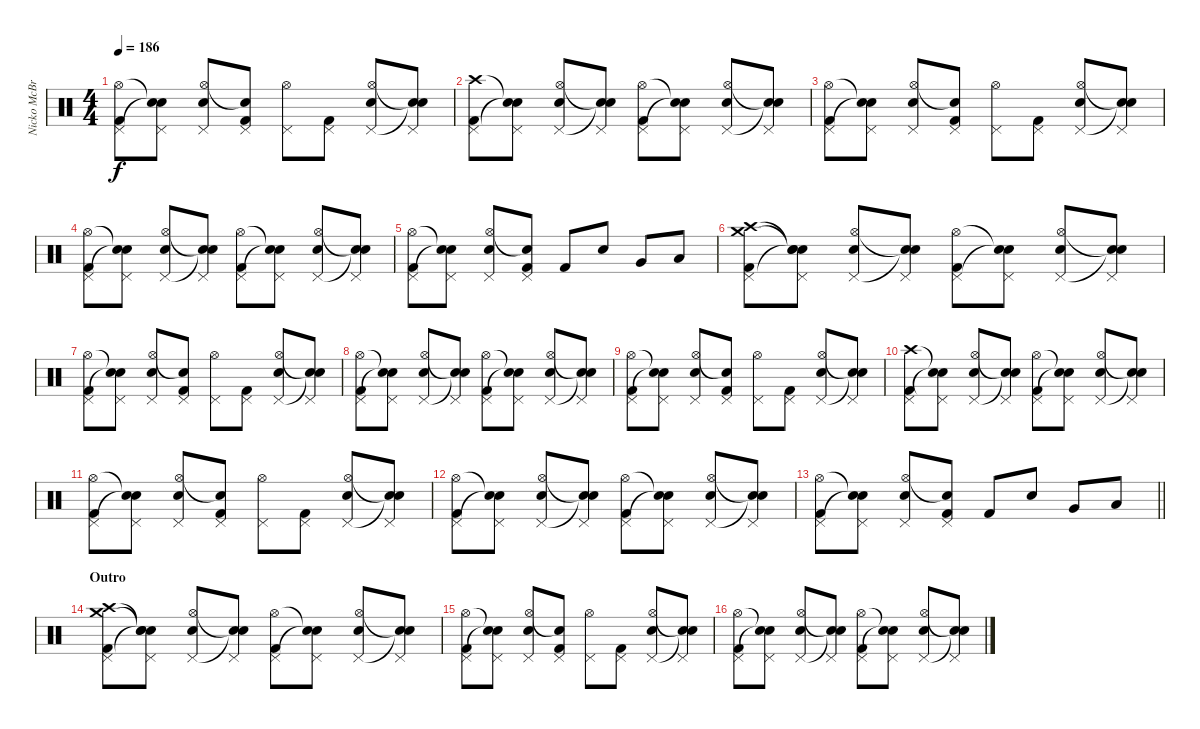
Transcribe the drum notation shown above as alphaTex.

\track ("Nicko McBrain" "Nicko McBr") {instrument percussion}
\staff {score}
\articulation defaults
\ts (4 4)
\tempo 186
\clef neutral
\ks c
("Kick (hit) 2" "Pedal Hi-Hat (hit)" "Hi-Hat (open)").8{dy f} ("Pedal Hi-Hat (hit)" "Snare (hit)"{t} "Snare (hit)"{t}).8 ("Snare (hit) 2" "Pedal Hi-Hat (hit)" "Hi-Hat (open)").8 ("Kick (hit) 2" "Pedal Hi-Hat (hit)" "Snare (hit)"{t}).8 ("Pedal Hi-Hat (hit)" "Hi-Hat (open)").8 ("Kick (hit) 2" "Pedal Hi-Hat (hit)").8 ("Snare (hit) 2" "Pedal Hi-Hat (hit)" "Hi-Hat (open)").8 ("Pedal Hi-Hat (hit)" "Snare (hit)"{t} "Snare (hit)"{t}).8 |
("Kick (hit) 2" "Pedal Hi-Hat (hit)" "Crash high (hit)").8 ("Pedal Hi-Hat (hit)" "Snare (hit)"{t} "Snare (hit)"{t}).8 ("Snare (hit) 2" "Pedal Hi-Hat (hit)" "Hi-Hat (open)").8 ("Pedal Hi-Hat (hit)" "Snare (hit)"{t} "Snare (hit)"{t}).8 ("Kick (hit) 2" "Pedal Hi-Hat (hit)" "Hi-Hat (open)").8 ("Pedal Hi-Hat (hit)" "Snare (hit)"{t} "Snare (hit)"{t}).8 ("Snare (hit) 2" "Pedal Hi-Hat (hit)" "Hi-Hat (open)").8 ("Pedal Hi-Hat (hit)" "Snare (hit)"{t} "Snare (hit)"{t}).8 |
("Kick (hit) 2" "Pedal Hi-Hat (hit)" "Hi-Hat (open)").8 ("Pedal Hi-Hat (hit)" "Snare (hit)"{t} "Snare (hit)"{t}).8 ("Snare (hit) 2" "Pedal Hi-Hat (hit)" "Hi-Hat (open)").8 ("Kick (hit) 2" "Pedal Hi-Hat (hit)" "Snare (hit)"{t}).8 ("Pedal Hi-Hat (hit)" "Hi-Hat (open)").8 ("Kick (hit) 2" "Pedal Hi-Hat (hit)").8 ("Snare (hit) 2" "Pedal Hi-Hat (hit)" "Hi-Hat (open)").8 ("Pedal Hi-Hat (hit)" "Snare (hit)"{t} "Snare (hit)"{t}).8 |
("Kick (hit) 2" "Pedal Hi-Hat (hit)" "Hi-Hat (open)").8 ("Pedal Hi-Hat (hit)" "Snare (hit)"{t} "Snare (hit)"{t}).8 ("Snare (hit) 2" "Pedal Hi-Hat (hit)" "Hi-Hat (open)").8 ("Pedal Hi-Hat (hit)" "Snare (hit)"{t} "Snare (hit)"{t}).8 ("Kick (hit) 2" "Pedal Hi-Hat (hit)" "Hi-Hat (open)").8 ("Pedal Hi-Hat (hit)" "Snare (hit)"{t} "Snare (hit)"{t}).8 ("Snare (hit) 2" "Pedal Hi-Hat (hit)" "Hi-Hat (open)").8 ("Pedal Hi-Hat (hit)" "Snare (hit)"{t} "Snare (hit)"{t}).8 |
("Kick (hit) 2" "Pedal Hi-Hat (hit)" "Hi-Hat (open)").8 ("Pedal Hi-Hat (hit)" "Snare (hit)"{t} "Snare (hit)"{t}).8 ("Snare (hit) 2" "Pedal Hi-Hat (hit)" "Hi-Hat (open)").8 ("Kick (hit) 2" "Pedal Hi-Hat (hit)" "Snare (hit)"{t}).8 "Kick (hit) 2".8 "Snare (hit) 2".8 "Very Low Tom (hit)".8 "Low Floor Tom (hit)".8 |
("Kick (hit) 2" "Pedal Hi-Hat (hit)" "Crash high (hit)" "Crash medium (hit)").8 ("Pedal Hi-Hat (hit)" "Snare (hit)"{t} "Snare (hit)"{t} "Snare (hit)"{t}).8 ("Snare (hit) 2" "Pedal Hi-Hat (hit)" "Hi-Hat (open)").8 ("Pedal Hi-Hat (hit)" "Snare (hit)"{t} "Snare (hit)"{t}).8 ("Kick (hit) 2" "Pedal Hi-Hat (hit)" "Hi-Hat (open)").8 ("Pedal Hi-Hat (hit)" "Snare (hit)"{t} "Snare (hit)"{t}).8 ("Snare (hit) 2" "Pedal Hi-Hat (hit)" "Hi-Hat (open)").8 ("Pedal Hi-Hat (hit)" "Snare (hit)"{t} "Snare (hit)"{t}).8 |
("Kick (hit) 2" "Pedal Hi-Hat (hit)" "Hi-Hat (open)").8 ("Pedal Hi-Hat (hit)" "Snare (hit)"{t} "Snare (hit)"{t}).8 ("Snare (hit) 2" "Pedal Hi-Hat (hit)" "Hi-Hat (open)").8 ("Kick (hit) 2" "Pedal Hi-Hat (hit)" "Snare (hit)"{t}).8 ("Pedal Hi-Hat (hit)" "Hi-Hat (open)").8 ("Kick (hit) 2" "Pedal Hi-Hat (hit)").8 ("Snare (hit) 2" "Pedal Hi-Hat (hit)" "Hi-Hat (open)").8 ("Pedal Hi-Hat (hit)" "Snare (hit)"{t} "Snare (hit)"{t}).8 |
("Kick (hit) 2" "Pedal Hi-Hat (hit)" "Hi-Hat (open)").8 ("Pedal Hi-Hat (hit)" "Snare (hit)"{t} "Snare (hit)"{t}).8 ("Snare (hit) 2" "Pedal Hi-Hat (hit)" "Hi-Hat (open)").8 ("Pedal Hi-Hat (hit)" "Snare (hit)"{t} "Snare (hit)"{t}).8 ("Kick (hit) 2" "Pedal Hi-Hat (hit)" "Hi-Hat (open)").8 ("Pedal Hi-Hat (hit)" "Snare (hit)"{t} "Snare (hit)"{t}).8 ("Snare (hit) 2" "Pedal Hi-Hat (hit)" "Hi-Hat (open)").8 ("Pedal Hi-Hat (hit)" "Snare (hit)"{t} "Snare (hit)"{t}).8 |
("Kick (hit) 2" "Pedal Hi-Hat (hit)" "Hi-Hat (open)").8 ("Pedal Hi-Hat (hit)" "Snare (hit)"{t} "Snare (hit)"{t}).8 ("Snare (hit) 2" "Pedal Hi-Hat (hit)" "Hi-Hat (open)").8 ("Kick (hit) 2" "Pedal Hi-Hat (hit)" "Snare (hit)"{t}).8 ("Pedal Hi-Hat (hit)" "Hi-Hat (open)").8 ("Kick (hit) 2" "Pedal Hi-Hat (hit)").8 ("Snare (hit) 2" "Pedal Hi-Hat (hit)" "Hi-Hat (open)").8 ("Pedal Hi-Hat (hit)" "Snare (hit)"{t} "Snare (hit)"{t}).8 |
("Kick (hit) 2" "Pedal Hi-Hat (hit)" "Crash high (hit)").8 ("Pedal Hi-Hat (hit)" "Snare (hit)"{t} "Snare (hit)"{t}).8 ("Snare (hit) 2" "Pedal Hi-Hat (hit)" "Hi-Hat (open)").8 ("Pedal Hi-Hat (hit)" "Snare (hit)"{t} "Snare (hit)"{t}).8 ("Kick (hit) 2" "Pedal Hi-Hat (hit)" "Hi-Hat (open)").8 ("Pedal Hi-Hat (hit)" "Snare (hit)"{t} "Snare (hit)"{t}).8 ("Snare (hit) 2" "Pedal Hi-Hat (hit)" "Hi-Hat (open)").8 ("Pedal Hi-Hat (hit)" "Snare (hit)"{t} "Snare (hit)"{t}).8 |
("Kick (hit) 2" "Pedal Hi-Hat (hit)" "Hi-Hat (open)").8 ("Pedal Hi-Hat (hit)" "Snare (hit)"{t} "Snare (hit)"{t}).8 ("Snare (hit) 2" "Pedal Hi-Hat (hit)" "Hi-Hat (open)").8 ("Kick (hit) 2" "Pedal Hi-Hat (hit)" "Snare (hit)"{t}).8 ("Pedal Hi-Hat (hit)" "Hi-Hat (open)").8 ("Kick (hit) 2" "Pedal Hi-Hat (hit)").8 ("Snare (hit) 2" "Pedal Hi-Hat (hit)" "Hi-Hat (open)").8 ("Pedal Hi-Hat (hit)" "Snare (hit)"{t} "Snare (hit)"{t}).8 |
("Kick (hit) 2" "Pedal Hi-Hat (hit)" "Hi-Hat (open)").8 ("Pedal Hi-Hat (hit)" "Snare (hit)"{t} "Snare (hit)"{t}).8 ("Snare (hit) 2" "Pedal Hi-Hat (hit)" "Hi-Hat (open)").8 ("Pedal Hi-Hat (hit)" "Snare (hit)"{t} "Snare (hit)"{t}).8 ("Kick (hit) 2" "Pedal Hi-Hat (hit)" "Hi-Hat (open)").8 ("Pedal Hi-Hat (hit)" "Snare (hit)"{t} "Snare (hit)"{t}).8 ("Snare (hit) 2" "Pedal Hi-Hat (hit)" "Hi-Hat (open)").8 ("Pedal Hi-Hat (hit)" "Snare (hit)"{t} "Snare (hit)"{t}).8 |
\barLineRight lightlight
("Kick (hit) 2" "Pedal Hi-Hat (hit)" "Hi-Hat (open)").8 ("Pedal Hi-Hat (hit)" "Snare (hit)"{t} "Snare (hit)"{t}).8 ("Snare (hit) 2" "Pedal Hi-Hat (hit)" "Hi-Hat (open)").8 ("Kick (hit) 2" "Pedal Hi-Hat (hit)" "Snare (hit)"{t}).8 "Kick (hit) 2".8 "Snare (hit) 2".8 "Very Low Tom (hit)".8 "Low Floor Tom (hit)".8 |
\section ("" "Outro")
("Kick (hit) 2" "Pedal Hi-Hat (hit)" "Crash high (hit)" "Crash medium (hit)").8 ("Pedal Hi-Hat (hit)" "Snare (hit)"{t} "Snare (hit)"{t} "Snare (hit)"{t}).8 ("Snare (hit) 2" "Pedal Hi-Hat (hit)" "Hi-Hat (open)").8 ("Pedal Hi-Hat (hit)" "Snare (hit)"{t} "Snare (hit)"{t}).8 ("Kick (hit) 2" "Pedal Hi-Hat (hit)" "Hi-Hat (open)").8 ("Pedal Hi-Hat (hit)" "Snare (hit)"{t} "Snare (hit)"{t}).8 ("Snare (hit) 2" "Pedal Hi-Hat (hit)" "Hi-Hat (open)").8 ("Pedal Hi-Hat (hit)" "Snare (hit)"{t} "Snare (hit)"{t}).8 |
("Kick (hit) 2" "Pedal Hi-Hat (hit)" "Hi-Hat (open)").8 ("Pedal Hi-Hat (hit)" "Snare (hit)"{t} "Snare (hit)"{t}).8 ("Snare (hit) 2" "Pedal Hi-Hat (hit)" "Hi-Hat (open)").8 ("Kick (hit) 2" "Pedal Hi-Hat (hit)" "Snare (hit)"{t}).8 ("Pedal Hi-Hat (hit)" "Hi-Hat (open)").8 ("Kick (hit) 2" "Pedal Hi-Hat (hit)").8 ("Snare (hit) 2" "Pedal Hi-Hat (hit)" "Hi-Hat (open)").8 ("Pedal Hi-Hat (hit)" "Snare (hit)"{t} "Snare (hit)"{t}).8 |
("Kick (hit) 2" "Pedal Hi-Hat (hit)" "Hi-Hat (open)").8 ("Pedal Hi-Hat (hit)" "Snare (hit)"{t} "Snare (hit)"{t}).8 ("Snare (hit) 2" "Pedal Hi-Hat (hit)" "Hi-Hat (open)").8 ("Pedal Hi-Hat (hit)" "Snare (hit)"{t} "Snare (hit)"{t}).8 ("Kick (hit) 2" "Pedal Hi-Hat (hit)" "Hi-Hat (open)").8 ("Pedal Hi-Hat (hit)" "Snare (hit)"{t} "Snare (hit)"{t}).8 ("Snare (hit) 2" "Pedal Hi-Hat (hit)" "Hi-Hat (open)").8 ("Pedal Hi-Hat (hit)" "Snare (hit)"{t} "Snare (hit)"{t}).8
